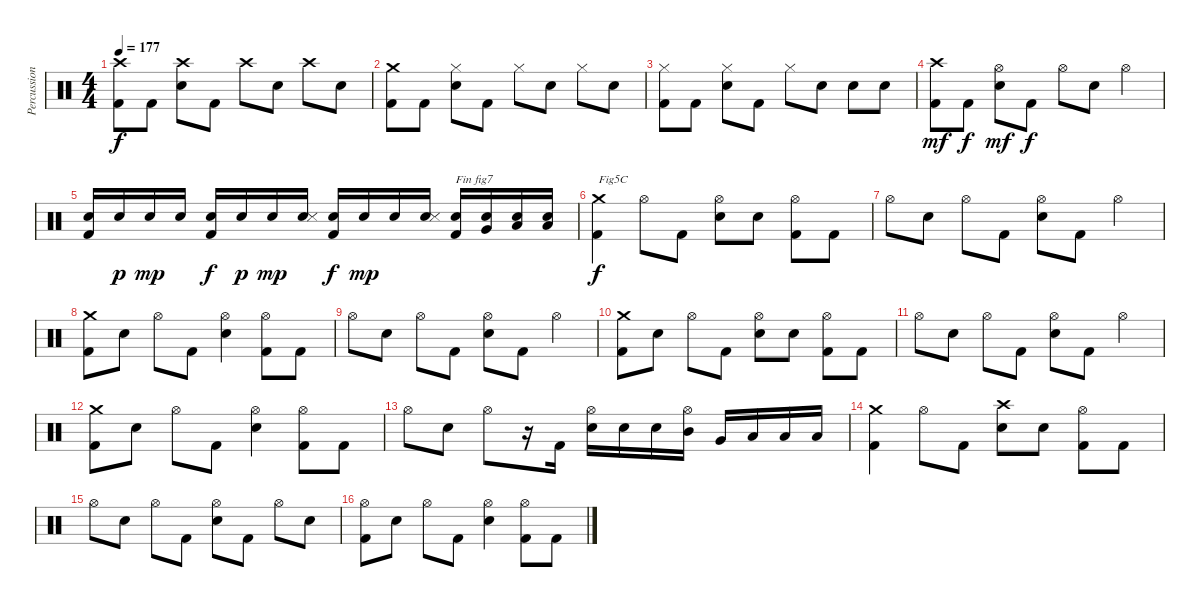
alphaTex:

\track ("Percussions" "Percussion") {instrument percussion}
\staff {score}
\articulation defaults
\ts (4 4)
\tempo 177
\clef neutral
\ks c
("Kick (hit) 2" "Crash high (hit)").8{dy f} "Kick (hit) 2".8 ("Electric Snare (hit)" "Crash high (hit)").8 "Kick (hit) 2".8 "Crash high (hit)".8 "Electric Snare (hit)".8 "Crash high (hit)".8 "Electric Snare (hit)".8 |
("Kick (hit) 2" "Crash medium (hit)").8 "Kick (hit) 2".8 ("Electric Snare (hit)" "Hi-Hat (closed)").8 "Kick (hit) 2".8 "Hi-Hat (closed)".8 "Electric Snare (hit)".8 "Hi-Hat (closed)".8 "Electric Snare (hit)".8 |
("Kick (hit) 2" "Hi-Hat (closed)").8 "Kick (hit) 2".8 ("Electric Snare (hit)" "Hi-Hat (closed)").8 "Kick (hit) 2".8 "Hi-Hat (closed)".8 "Electric Snare (hit)".8 "Electric Snare (hit)".8 "Electric Snare (hit)".8 |
("Kick (hit) 2" "Crash high (hit)").8{dy mf} "Kick (hit) 2".8{dy f} ("Electric Snare (hit)" "Hi-Hat (open)").8{dy mf} "Kick (hit) 2".8{dy f} "Hi-Hat (open)".8 "Electric Snare (hit)".8 "Hi-Hat (open)".4 |
("Kick (hit) 2" "Electric Snare (hit)").16 "Electric Snare (hit)".16{dy p} "Electric Snare (hit)".16{dy mp} "Electric Snare (hit)".16 ("Kick (hit) 2" "Electric Snare (hit)").16{dy f} "Electric Snare (hit)".16{dy p} "Electric Snare (hit)".16{dy mp} ("Electric Snare (hit)" "Snare (side stick) 3").16 ("Kick (hit) 2" "Electric Snare (hit)").16{dy f} "Electric Snare (hit)".16{dy mp} "Electric Snare (hit)".16 ("Electric Snare (hit)" "Snare (side stick) 3").16 ("Kick (hit) 2" "Electric Snare (hit)").16{txt "Fin fig7"} ("Very Low Tom (hit)" "Electric Snare (hit)").16 ("Low Tom (hit)" "Electric Snare (hit)").16 ("Low Floor Tom (hit)" "Electric Snare (hit)").16 |
("Kick (hit) 2" "Crash medium (hit)").4{txt "Fig5C" dy f} "Hi-Hat (open)".8 "Kick (hit) 2".8 ("Electric Snare (hit)" "Hi-Hat (open)").8 "Electric Snare (hit)".8 ("Kick (hit) 2" "Hi-Hat (open)").8 "Kick (hit) 2".8 |
"Hi-Hat (open)".8 "Electric Snare (hit)".8 "Hi-Hat (open)".8 "Kick (hit) 2".8 ("Electric Snare (hit)" "Hi-Hat (open)").8 "Kick (hit) 2".8 "Hi-Hat (open)".4 |
("Kick (hit) 2" "Crash medium (hit)").8 "Electric Snare (hit)".8 "Hi-Hat (open)".8 "Kick (hit) 2".8 ("Electric Snare (hit)" "Hi-Hat (open)").4 ("Kick (hit) 2" "Hi-Hat (open)").8 "Kick (hit) 2".8 |
"Hi-Hat (open)".8 "Electric Snare (hit)".8 "Hi-Hat (open)".8 "Kick (hit) 2".8 ("Electric Snare (hit)" "Hi-Hat (open)").8 "Kick (hit) 2".8 "Hi-Hat (open)".4 |
("Kick (hit) 2" "Crash medium (hit)").8 "Electric Snare (hit)".8 "Hi-Hat (open)".8 "Kick (hit) 2".8 ("Electric Snare (hit)" "Hi-Hat (open)").8 "Electric Snare (hit)".8 ("Kick (hit) 2" "Hi-Hat (open)").8 "Kick (hit) 2".8 |
"Hi-Hat (open)".8 "Electric Snare (hit)".8 "Hi-Hat (open)".8 "Kick (hit) 2".8 ("Electric Snare (hit)" "Hi-Hat (open)").8 "Kick (hit) 2".8 "Hi-Hat (open)".4 |
("Kick (hit) 2" "Crash medium (hit)").8 "Electric Snare (hit)".8 "Hi-Hat (open)".8 "Kick (hit) 2".8 ("Electric Snare (hit)" "Hi-Hat (open)").4 ("Kick (hit) 2" "Hi-Hat (open)").8 "Kick (hit) 2".8 |
"Hi-Hat (open)".8 "Electric Snare (hit)".8 "Hi-Hat (open)".8 r.16 "Kick (hit) 2".16 ("Electric Snare (hit)" "Hi-Hat (open)").16 "Electric Snare (hit)".16 "Electric Snare (hit)".16 ("Mid Tom (hit)" "Hi-Hat (open)").16 "Very Low Tom (hit)".16 "Low Tom (hit)".16 "Low Floor Tom (hit)".16 "Low Floor Tom (hit)".16 |
("Kick (hit) 2" "Crash medium (hit)").4 "Hi-Hat (open)".8 "Kick (hit) 2".8 ("Electric Snare (hit)" "Crash high (hit)").8 "Electric Snare (hit)".8 ("Kick (hit) 2" "Hi-Hat (open)").8 "Kick (hit) 2".8 |
"Hi-Hat (open)".8 "Electric Snare (hit)".8 "Hi-Hat (open)".8 "Kick (hit) 2".8 ("Electric Snare (hit)" "Hi-Hat (open)").8 "Kick (hit) 2".8 "Hi-Hat (open)".8 "Electric Snare (hit)".8 |
("Kick (hit) 2" "Hi-Hat (open)").8 "Electric Snare (hit)".8 "Hi-Hat (open)".8 "Kick (hit) 2".8 ("Electric Snare (hit)" "Hi-Hat (open)").4 ("Kick (hit) 2" "Hi-Hat (open)").8 "Kick (hit) 2".8
